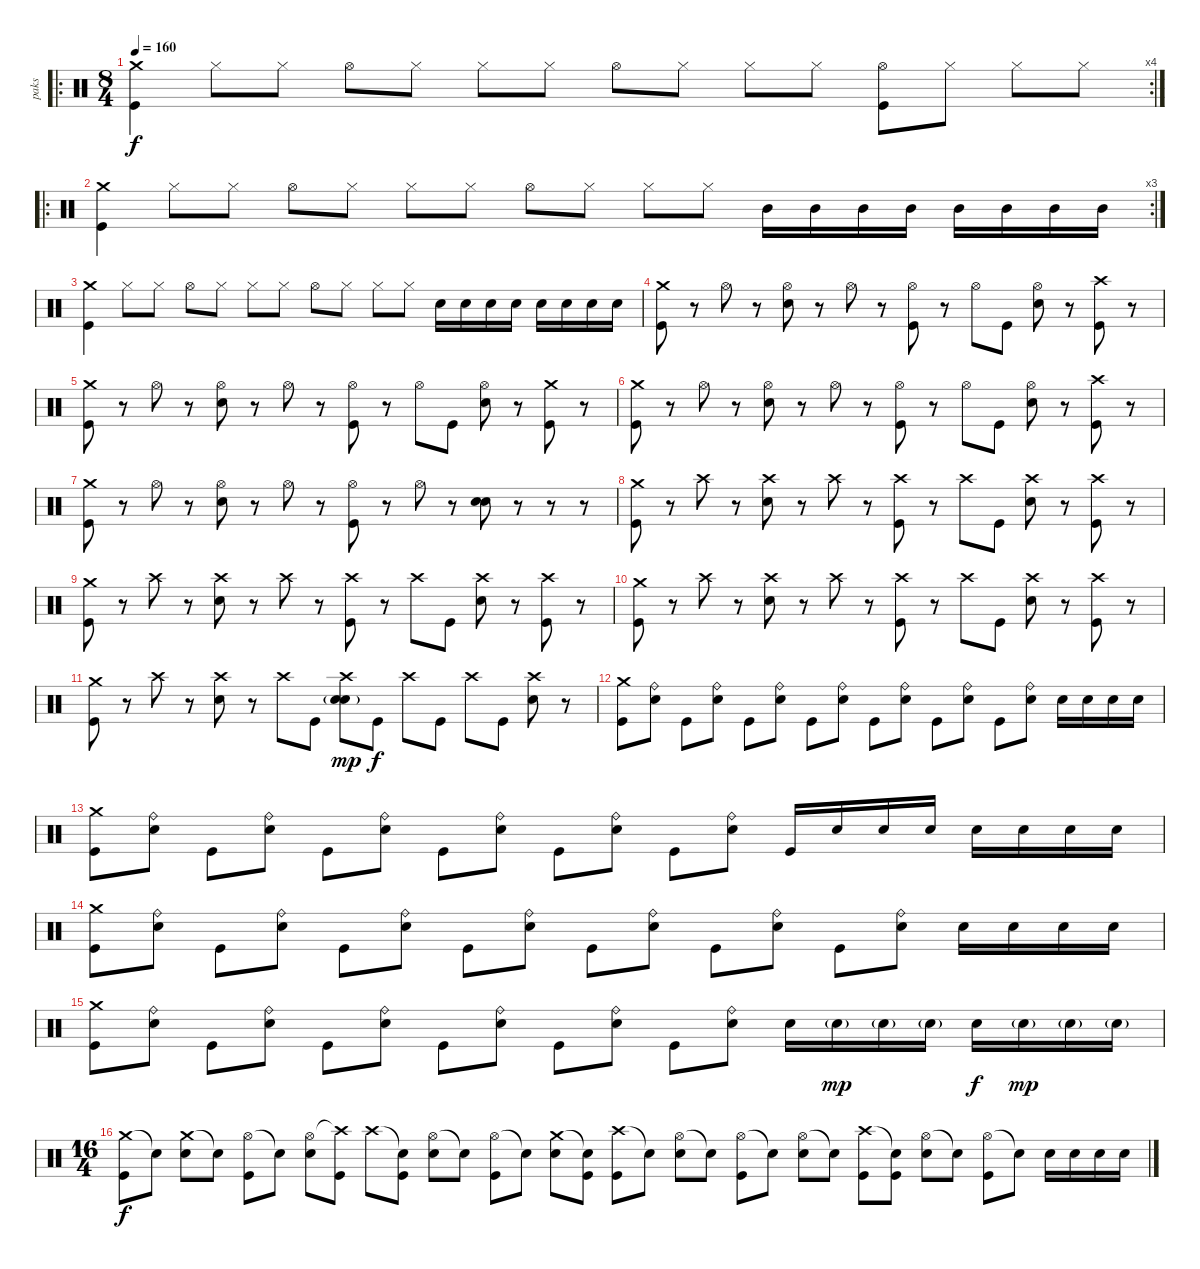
\track ("paks" "paks") {instrument percussion}
\staff {score}
\articulation defaults
\ro
\rc 4
\ts (8 4)
\tempo 160
\clef neutral
\ks c
("Crash medium (hit)" "Kick (hit)").4{dy f} "Hi-Hat (closed)".8 "Hi-Hat (closed)".8 "Hi-Hat (open)".8 "Hi-Hat (closed)".8 "Hi-Hat (closed)".8 "Hi-Hat (closed)".8 "Hi-Hat (open)".8 "Hi-Hat (closed)".8 "Hi-Hat (closed)".8 "Hi-Hat (closed)".8 ("Hi-Hat (open)" "Kick (hit)").8 "Hi-Hat (closed)".8 "Hi-Hat (closed)".8 "Hi-Hat (closed)".8 |
\ro
\rc 3
("Crash medium (hit)" "Kick (hit)").4 "Hi-Hat (closed)".8 "Hi-Hat (closed)".8 "Hi-Hat (open)".8 "Hi-Hat (closed)".8 "Hi-Hat (closed)".8 "Hi-Hat (closed)".8 "Hi-Hat (open)".8 "Hi-Hat (closed)".8 "Hi-Hat (closed)".8 "Hi-Hat (closed)".8 "Mid Tom (hit)".16 "Mid Tom (hit)".16 "Mid Tom (hit)".16 "Mid Tom (hit)".16 "Mid Tom (hit)".16 "Mid Tom (hit)".16 "Mid Tom (hit)".16 "Mid Tom (hit)".16 |
("Crash medium (hit)" "Kick (hit)").4 "Hi-Hat (closed)".8 "Hi-Hat (closed)".8 "Hi-Hat (open)".8 "Hi-Hat (closed)".8 "Hi-Hat (closed)".8 "Hi-Hat (closed)".8 "Hi-Hat (open)".8 "Hi-Hat (closed)".8 "Hi-Hat (closed)".8 "Hi-Hat (closed)".8 "Electric Snare (hit)".16 "Electric Snare (hit)".16 "Electric Snare (hit)".16 "Electric Snare (hit)".16 "Electric Snare (hit)".16 "Electric Snare (hit)".16 "Electric Snare (hit)".16 "Electric Snare (hit)".16 |
("Crash medium (hit)" "Kick (hit)").8 r.8 "Hi-Hat (open)".8 r.8 ("Hi-Hat (open)" "Electric Snare (hit)").8 r.8 "Hi-Hat (open)".8 r.8 ("Hi-Hat (open)" "Kick (hit)").8 r.8 "Hi-Hat (open)".8 "Kick (hit)".8 ("Hi-Hat (open)" "Electric Snare (hit)").8 r.8 ("Crash high (hit)" "Kick (hit)").8 r.8 |
("Crash medium (hit)" "Kick (hit)").8 r.8 "Hi-Hat (open)".8 r.8 ("Hi-Hat (open)" "Electric Snare (hit)").8 r.8 "Hi-Hat (open)".8 r.8 ("Hi-Hat (open)" "Kick (hit)").8 r.8 "Hi-Hat (open)".8 "Kick (hit)".8 ("Hi-Hat (open)" "Electric Snare (hit)").8 r.8 ("Crash medium (hit)" "Kick (hit)").8 r.8 |
("Crash medium (hit)" "Kick (hit)").8 r.8 "Hi-Hat (open)".8 r.8 ("Hi-Hat (open)" "Electric Snare (hit)").8 r.8 "Hi-Hat (open)".8 r.8 ("Hi-Hat (open)" "Kick (hit)").8 r.8 "Hi-Hat (open)".8 "Kick (hit)".8 ("Hi-Hat (open)" "Electric Snare (hit)").8 r.8 ("Crash high (hit)" "Kick (hit)").8 r.8 |
("Crash medium (hit)" "Kick (hit)").8 r.8 "Hi-Hat (open)".8 r.8 ("Hi-Hat (open)" "Electric Snare (hit)").8 r.8 "Hi-Hat (open)".8 r.8 ("Hi-Hat (open)" "Kick (hit)").8 r.8 "Hi-Hat (open)".8 r.8 ("Electric Snare (hit)" "Electric Snare (hit)").8 r.8 r.8 r.8 |
("Crash medium (hit)" "Kick (hit)").8 r.8 "Crash high (hit)".8 r.8 ("Crash high (hit)" "Electric Snare (hit)").8 r.8 "Crash high (hit)".8 r.8 ("Crash high (hit)" "Kick (hit)").8 r.8 "Crash high (hit)".8 "Kick (hit)".8 ("Crash high (hit)" "Electric Snare (hit)").8 r.8 ("Crash high (hit)" "Kick (hit)").8 r.8 |
("Crash medium (hit)" "Kick (hit)").8 r.8 "Crash high (hit)".8 r.8 ("Crash high (hit)" "Electric Snare (hit)").8 r.8 "Crash high (hit)".8 r.8 ("Crash high (hit)" "Kick (hit)").8 r.8 "Crash high (hit)".8 "Kick (hit)".8 ("Crash high (hit)" "Electric Snare (hit)").8 r.8 ("Crash high (hit)" "Kick (hit)").8 r.8 |
("Crash medium (hit)" "Kick (hit)").8 r.8 "Crash high (hit)".8 r.8 ("Crash high (hit)" "Electric Snare (hit)").8 r.8 "Crash high (hit)".8 r.8 ("Crash high (hit)" "Kick (hit)").8 r.8 "Crash high (hit)".8 "Kick (hit)".8 ("Crash high (hit)" "Electric Snare (hit)").8 r.8 ("Crash high (hit)" "Kick (hit)").8 r.8 |
("Crash medium (hit)" "Kick (hit)").8 r.8 "Crash high (hit)".8 r.8 ("Crash high (hit)" "Electric Snare (hit)").8 r.8 "Crash high (hit)".8 "Kick (hit)".8 ("Crash high (hit)" "Electric Snare (hit)"{g} "Electric Snare (hit)").8{dy mp} "Kick (hit)".8{dy f} "Crash high (hit)".8 "Kick (hit)".8 "Crash high (hit)".8 "Kick (hit)".8 ("Crash high (hit)" "Electric Snare (hit)").8 r.8 |
("Crash medium (hit)" "Kick (hit)").8 ("Ride (bell)" "Electric Snare (hit)").8 "Kick (hit)".8 ("Ride (bell)" "Electric Snare (hit)").8 "Kick (hit)".8 ("Ride (bell)" "Electric Snare (hit)").8 "Kick (hit)".8 ("Ride (bell)" "Electric Snare (hit)").8 "Kick (hit)".8 ("Ride (bell)" "Electric Snare (hit)").8 "Kick (hit)".8 ("Ride (bell)" "Electric Snare (hit)").8 "Kick (hit)".8 ("Ride (bell)" "Electric Snare (hit)").8 "Electric Snare (hit)".16 "Electric Snare (hit)".16 "Electric Snare (hit)".16 "Electric Snare (hit)".16 |
("Crash medium (hit)" "Kick (hit)").8 ("Ride (bell)" "Electric Snare (hit)").8 "Kick (hit)".8 ("Ride (bell)" "Electric Snare (hit)").8 "Kick (hit)".8 ("Ride (bell)" "Electric Snare (hit)").8 "Kick (hit)".8 ("Ride (bell)" "Electric Snare (hit)").8 "Kick (hit)".8 ("Ride (bell)" "Electric Snare (hit)").8 "Kick (hit)".8 ("Ride (bell)" "Electric Snare (hit)").8 "Kick (hit)".16 "Electric Snare (hit)".16 "Electric Snare (hit)".16 "Electric Snare (hit)".16 "Electric Snare (hit)".16 "Electric Snare (hit)".16 "Electric Snare (hit)".16 "Electric Snare (hit)".16 |
("Crash medium (hit)" "Kick (hit)").8 ("Ride (bell)" "Electric Snare (hit)").8 "Kick (hit)".8 ("Ride (bell)" "Electric Snare (hit)").8 "Kick (hit)".8 ("Ride (bell)" "Electric Snare (hit)").8 "Kick (hit)".8 ("Ride (bell)" "Electric Snare (hit)").8 "Kick (hit)".8 ("Ride (bell)" "Electric Snare (hit)").8 "Kick (hit)".8 ("Ride (bell)" "Electric Snare (hit)").8 "Kick (hit)".8 ("Ride (bell)" "Electric Snare (hit)").8 "Electric Snare (hit)".16 "Electric Snare (hit)".16 "Electric Snare (hit)".16 "Electric Snare (hit)".16 |
("Crash medium (hit)" "Kick (hit)").8 ("Ride (bell)" "Electric Snare (hit)").8 "Kick (hit)".8 ("Ride (bell)" "Electric Snare (hit)").8 "Kick (hit)".8 ("Ride (bell)" "Electric Snare (hit)").8 "Kick (hit)".8 ("Ride (bell)" "Electric Snare (hit)").8 "Kick (hit)".8 ("Ride (bell)" "Electric Snare (hit)").8 "Kick (hit)".8 ("Ride (bell)" "Electric Snare (hit)").8 "Electric Snare (hit)".16 "Electric Snare (hit)"{g}.16{dy mp} "Electric Snare (hit)"{g}.16 "Electric Snare (hit)"{g}.16 "Electric Snare (hit)".16{dy f} "Electric Snare (hit)"{g}.16{dy mp} "Electric Snare (hit)"{g}.16 "Electric Snare (hit)"{g}.16 |
\ts (16 4)
("Crash medium (hit)" "Kick (hit)").8{dy f} "Snare (hit)"{t}.8 ("Crash medium (hit)" "Electric Snare (hit)").8 "Snare (hit)"{t}.8 ("Hi-Hat (open)" "Kick (hit)").8 "Snare (hit)"{t}.8 ("Hi-Hat (open)" "Electric Snare (hit)").8 ("Crash high (hit)"{t} "Kick (hit)").8 "Crash high (hit)".8 ("Snare (hit)"{t} "Kick (hit)").8 ("Hi-Hat (open)" "Electric Snare (hit)").8 "Snare (hit)"{t}.8 ("Hi-Hat (open)" "Kick (hit)").8 "Snare (hit)"{t}.8 ("Crash medium (hit)" "Electric Snare (hit)").8 ("Snare (hit)"{t} "Kick (hit)").8 ("Crash high (hit)" "Kick (hit)").8 "Snare (hit)"{t}.8 ("Hi-Hat (open)" "Electric Snare (hit)").8 "Snare (hit)"{t}.8 ("Hi-Hat (open)" "Kick (hit)").8 "Snare (hit)"{t}.8 ("Hi-Hat (open)" "Electric Snare (hit)").8 "Snare (hit)"{t}.8 ("Crash high (hit)" "Kick (hit)").8 ("Snare (hit)"{t} "Kick (hit)").8 ("Hi-Hat (open)" "Electric Snare (hit)").8 "Snare (hit)"{t}.8 ("Hi-Hat (open)" "Kick (hit)").8 "Snare (hit)"{t}.8 "Electric Snare (hit)".16 "Electric Snare (hit)".16 "Electric Snare (hit)".16 "Electric Snare (hit)".16
